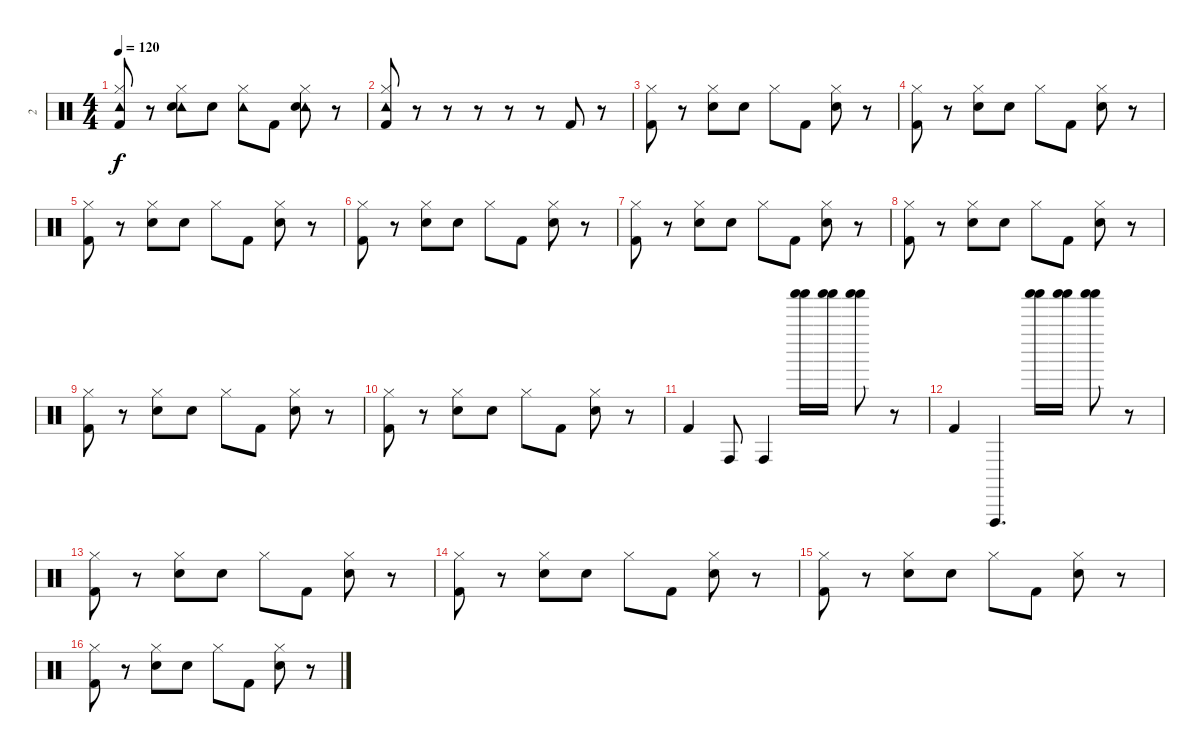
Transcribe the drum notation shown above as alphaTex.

\track ("2" "2") {instrument percussion}
\staff {score}
\articulation defaults
\ts (4 4)
\tempo 120
\clef neutral
\ks c
("Tambourine (hit)" "Hi-Hat (closed)" "Kick (hit) 2").8{dy f} r.8 ("Tambourine (hit)" "Hi-Hat (closed)" "Snare (hit) 2").8 "Snare (hit) 2".8 ("Tambourine (hit)" "Hi-Hat (closed)").8 "Kick (hit) 2".8 ("Tambourine (hit)" "Hi-Hat (closed)" "Snare (hit) 2").8 r.8 |
("Tambourine (hit)" "Hi-Hat (closed)" "Kick (hit) 2").8 r.8 r.8 r.8 r.8 r.8 "Kick (hit) 2".8 r.8 |
("Hi-Hat (closed)" "Kick (hit) 2").8 r.8 ("Hi-Hat (closed)" "Snare (hit) 2").8 "Snare (hit) 2".8 "Hi-Hat (closed)".8 "Kick (hit) 2".8 ("Hi-Hat (closed)" "Snare (hit) 2").8 r.8 |
("Hi-Hat (closed)" "Kick (hit) 2").8 r.8 ("Hi-Hat (closed)" "Snare (hit) 2").8 "Snare (hit) 2".8 "Hi-Hat (closed)".8 "Kick (hit) 2".8 ("Hi-Hat (closed)" "Snare (hit) 2").8 r.8 |
("Hi-Hat (closed)" "Kick (hit) 2").8 r.8 ("Hi-Hat (closed)" "Snare (hit) 2").8 "Snare (hit) 2".8 "Hi-Hat (closed)".8 "Kick (hit) 2".8 ("Hi-Hat (closed)" "Snare (hit) 2").8 r.8 |
("Hi-Hat (closed)" "Kick (hit) 2").8 r.8 ("Hi-Hat (closed)" "Snare (hit) 2").8 "Snare (hit) 2".8 "Hi-Hat (closed)".8 "Kick (hit) 2".8 ("Hi-Hat (closed)" "Snare (hit) 2").8 r.8 |
("Hi-Hat (closed)" "Kick (hit) 2").8 r.8 ("Hi-Hat (closed)" "Snare (hit) 2").8 "Snare (hit) 2".8 "Hi-Hat (closed)".8 "Kick (hit) 2".8 ("Hi-Hat (closed)" "Snare (hit) 2").8 r.8 |
("Hi-Hat (closed)" "Kick (hit) 2").8 r.8 ("Hi-Hat (closed)" "Snare (hit) 2").8 "Snare (hit) 2".8 "Hi-Hat (closed)".8 "Kick (hit) 2".8 ("Hi-Hat (closed)" "Snare (hit) 2").8 r.8 |
("Hi-Hat (closed)" "Kick (hit) 2").8 r.8 ("Hi-Hat (closed)" "Snare (hit) 2").8 "Snare (hit) 2".8 "Hi-Hat (closed)".8 "Kick (hit) 2".8 ("Hi-Hat (closed)" "Snare (hit) 2").8 r.8 |
("Hi-Hat (closed)" "Kick (hit) 2").8 r.8 ("Hi-Hat (closed)" "Snare (hit) 2").8 "Snare (hit) 2".8 "Hi-Hat (closed)".8 "Kick (hit) 2".8 ("Hi-Hat (closed)" "Snare (hit) 2").8 r.8 |
"Kick (hit) 2".4 "Conga high (hit)".8 "Conga high (hit)".4 ("Shaker (hit)" "Shaker (hit)").16 ("Shaker (hit)" "Shaker (hit)").16 ("Shaker (hit)" "Shaker (hit)").8 r.8 |
"Kick (hit) 2".4 "Vibraslap (hit)".4{d} ("Shaker (hit)" "Shaker (hit)").16 ("Shaker (hit)" "Shaker (hit)").16 ("Shaker (hit)" "Shaker (hit)").8 r.8 |
("Hi-Hat (closed)" "Kick (hit) 2").8 r.8 ("Hi-Hat (closed)" "Snare (hit) 2").8 "Snare (hit) 2".8 "Hi-Hat (closed)".8 "Kick (hit) 2".8 ("Hi-Hat (closed)" "Snare (hit) 2").8 r.8 |
("Hi-Hat (closed)" "Kick (hit) 2").8 r.8 ("Hi-Hat (closed)" "Snare (hit) 2").8 "Snare (hit) 2".8 "Hi-Hat (closed)".8 "Kick (hit) 2".8 ("Hi-Hat (closed)" "Snare (hit) 2").8 r.8 |
("Hi-Hat (closed)" "Kick (hit) 2").8 r.8 ("Hi-Hat (closed)" "Snare (hit) 2").8 "Snare (hit) 2".8 "Hi-Hat (closed)".8 "Kick (hit) 2".8 ("Hi-Hat (closed)" "Snare (hit) 2").8 r.8 |
("Hi-Hat (closed)" "Kick (hit) 2").8 r.8 ("Hi-Hat (closed)" "Snare (hit) 2").8 "Snare (hit) 2".8 "Hi-Hat (closed)".8 "Kick (hit) 2".8 ("Hi-Hat (closed)" "Snare (hit) 2").8 r.8
